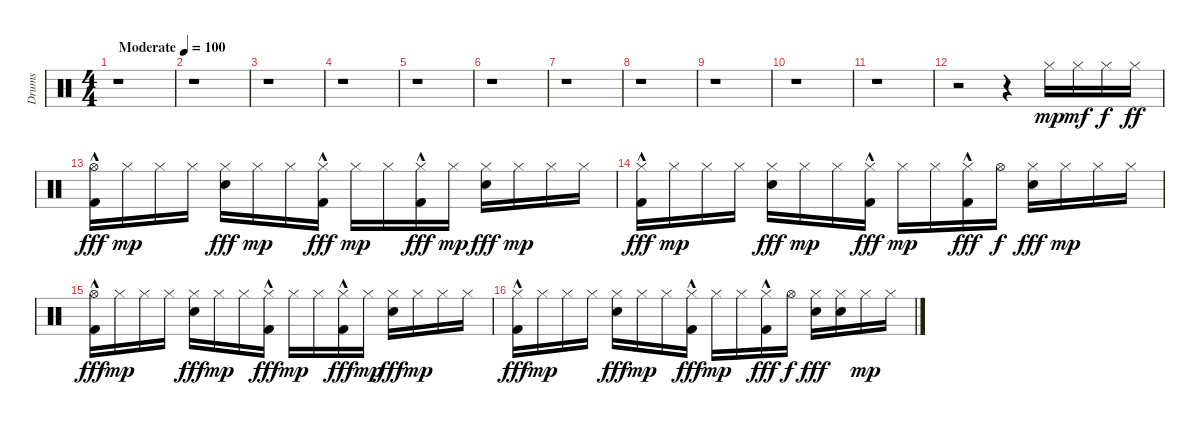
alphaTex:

\track ("Drums" "Drums") {instrument percussion}
\staff {score}
\articulation defaults
\ts (4 4)
\tempo (100 "Moderate")
\clef neutral
\ks c
r.1{dy mp} |
r.1 |
r.1 |
r.1 |
r.1 |
r.1 |
r.1 |
r.1 |
r.1 |
r.1 |
r.1 |
r.2 r.4 "Hi-Hat (closed)".16 "Hi-Hat (closed)".16{dy mf} "Hi-Hat (closed)".16{dy f} "Hi-Hat (closed)".16{dy ff} |
("Hi-Hat (open)" "Kick (hit) 2"{hac}).16{dy fff} "Hi-Hat (closed)".16{dy mp} "Hi-Hat (closed)".16 "Hi-Hat (closed)".16 ("Hi-Hat (closed)" "Snare (hit) 2").16{dy fff} "Hi-Hat (closed)".16{dy mp} "Hi-Hat (closed)".16 ("Hi-Hat (closed)" "Kick (hit) 2"{hac}).16{dy fff} "Hi-Hat (closed)".16{dy mp} "Hi-Hat (closed)".16 ("Hi-Hat (closed)" "Kick (hit) 2"{hac}).16{dy fff} "Hi-Hat (closed)".16{dy mp} ("Hi-Hat (closed)" "Snare (hit) 2").16{dy fff} "Hi-Hat (closed)".16{dy mp} "Hi-Hat (closed)".16 "Hi-Hat (closed)".16 |
("Hi-Hat (closed)" "Kick (hit) 2"{hac}).16{dy fff} "Hi-Hat (closed)".16{dy mp} "Hi-Hat (closed)".16 "Hi-Hat (closed)".16 ("Hi-Hat (closed)" "Snare (hit) 2").16{dy fff} "Hi-Hat (closed)".16{dy mp} "Hi-Hat (closed)".16 ("Hi-Hat (closed)" "Kick (hit) 2"{hac}).16{dy fff} "Hi-Hat (closed)".16{dy mp} "Hi-Hat (closed)".16 ("Hi-Hat (closed)" "Kick (hit) 2"{hac}).16{dy fff} "Hi-Hat (open)".16{dy f} ("Hi-Hat (closed)" "Snare (hit) 2").16{dy fff} "Hi-Hat (closed)".16{dy mp} "Hi-Hat (closed)".16 "Hi-Hat (closed)".16 |
("Hi-Hat (open)" "Kick (hit) 2"{hac}).16{dy fff} "Hi-Hat (closed)".16{dy mp} "Hi-Hat (closed)".16 "Hi-Hat (closed)".16 ("Hi-Hat (closed)" "Snare (hit) 2").16{dy fff} "Hi-Hat (closed)".16{dy mp} "Hi-Hat (closed)".16 ("Hi-Hat (closed)" "Kick (hit) 2"{hac}).16{dy fff} "Hi-Hat (closed)".16{dy mp} "Hi-Hat (closed)".16 ("Hi-Hat (closed)" "Kick (hit) 2"{hac}).16{dy fff} "Hi-Hat (closed)".16{dy mp} ("Hi-Hat (closed)" "Snare (hit) 2").16{dy fff} "Hi-Hat (closed)".16{dy mp} "Hi-Hat (closed)".16 "Hi-Hat (closed)".16 |
("Hi-Hat (closed)" "Kick (hit) 2"{hac}).16{dy fff} "Hi-Hat (closed)".16{dy mp} "Hi-Hat (closed)".16 "Hi-Hat (closed)".16 ("Hi-Hat (closed)" "Snare (hit) 2").16{dy fff} "Hi-Hat (closed)".16{dy mp} "Hi-Hat (closed)".16 ("Hi-Hat (closed)" "Kick (hit) 2"{hac}).16{dy fff} "Hi-Hat (closed)".16{dy mp} "Hi-Hat (closed)".16 ("Hi-Hat (closed)" "Kick (hit) 2"{hac}).16{dy fff} "Hi-Hat (open)".16{dy f} ("Hi-Hat (closed)" "Snare (hit) 2").16{dy fff} ("Hi-Hat (closed)" "Snare (hit) 2").16 "Hi-Hat (closed)".16{dy mp} "Hi-Hat (closed)".16
